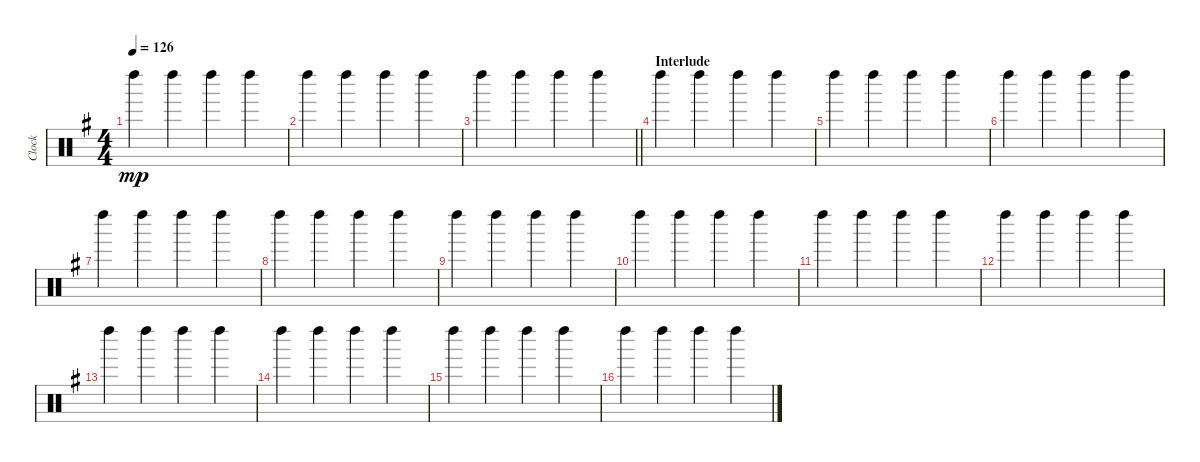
\track ("Clock" "Clock") {instrument percussion}
\staff {score}
\articulation defaults
\ts (4 4)
\tempo 126
\clef neutral
\ks eminor "Left Maraca (hit)".4{dy mp} "Left Maraca (hit)".4 "Left Maraca (hit)".4 "Left Maraca (hit)".4
|
"Left Maraca (hit)".4 "Left Maraca (hit)".4 "Left Maraca (hit)".4 "Left Maraca (hit)".4 |
\barLineRight lightlight "Left Maraca (hit)".4 "Left Maraca (hit)".4 "Left Maraca (hit)".4 "Left Maraca (hit)".4
|
\section ("" "Interlude")
"Left Maraca (hit)".4 "Left Maraca (hit)".4 "Left Maraca (hit)".4 "Left Maraca (hit)".4 |
"Left Maraca (hit)".4 "Left Maraca (hit)".4 "Left Maraca (hit)".4 "Left Maraca (hit)".4 |
"Left Maraca (hit)".4 "Left Maraca (hit)".4 "Left Maraca (hit)".4 "Left Maraca (hit)".4 |
"Left Maraca (hit)".4 "Left Maraca (hit)".4 "Left Maraca (hit)".4 "Left Maraca (hit)".4 |
"Left Maraca (hit)".4 "Left Maraca (hit)".4 "Left Maraca (hit)".4 "Left Maraca (hit)".4 |
"Left Maraca (hit)".4 "Left Maraca (hit)".4 "Left Maraca (hit)".4 "Left Maraca (hit)".4 |
"Left Maraca (hit)".4 "Left Maraca (hit)".4 "Left Maraca (hit)".4 "Left Maraca (hit)".4 |
"Left Maraca (hit)".4 "Left Maraca (hit)".4 "Left Maraca (hit)".4 "Left Maraca (hit)".4 |
"Left Maraca (hit)".4 "Left Maraca (hit)".4 "Left Maraca (hit)".4 "Left Maraca (hit)".4 |
"Left Maraca (hit)".4 "Left Maraca (hit)".4 "Left Maraca (hit)".4 "Left Maraca (hit)".4 |
"Left Maraca (hit)".4 "Left Maraca (hit)".4 "Left Maraca (hit)".4 "Left Maraca (hit)".4 |
"Left Maraca (hit)".4 "Left Maraca (hit)".4 "Left Maraca (hit)".4 "Left Maraca (hit)".4 |
"Left Maraca (hit)".4 "Left Maraca (hit)".4 "Left Maraca (hit)".4 "Left Maraca (hit)".4
